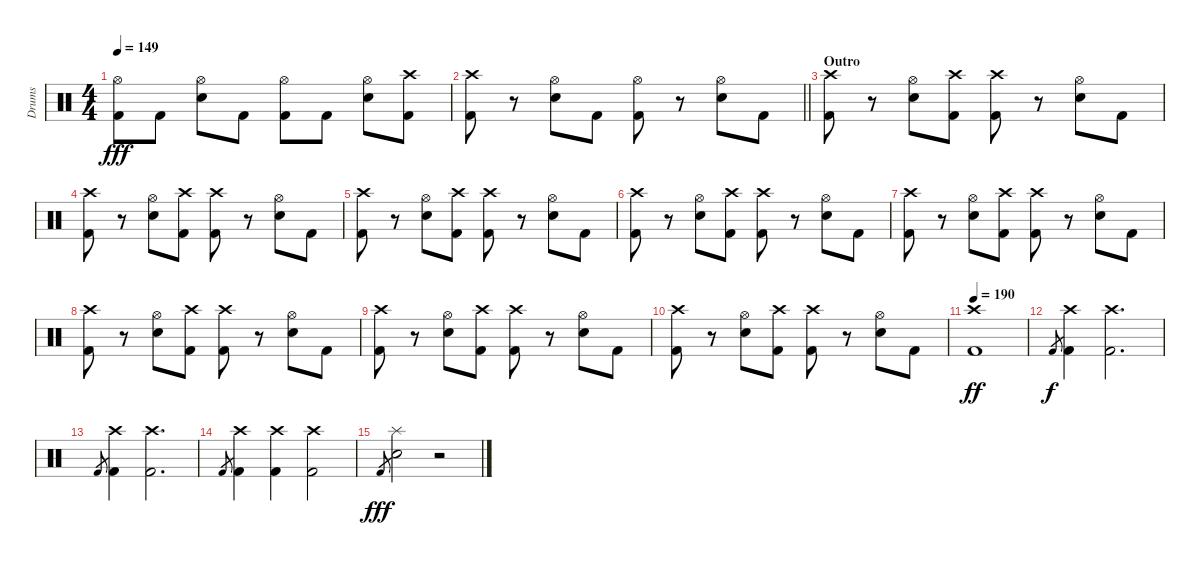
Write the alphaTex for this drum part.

\track ("Drums" "Drums") {instrument percussion}
\staff {score}
\articulation defaults
\ts (4 4)
\tempo 149
\clef neutral
\ks c
("Hi-Hat (open)" "Kick (hit) 2").8{dy fff} "Kick (hit) 2".8 ("Hi-Hat (open)" "Snare (hit) 2").8 "Kick (hit) 2".8 ("Hi-Hat (open)" "Kick (hit) 2").8 "Kick (hit) 2".8 ("Hi-Hat (open)" "Snare (hit) 2").8 ("Crash high (hit)" "Kick (hit) 2").8 |
\barLineRight lightlight
("Crash high (hit)" "Kick (hit) 2").8 r.8 ("Hi-Hat (open)" "Snare (hit) 2").8 "Kick (hit) 2".8 ("Hi-Hat (open)" "Kick (hit) 2").8 r.8 ("Hi-Hat (open)" "Snare (hit) 2").8 "Kick (hit) 2".8 |
\section ("" "Outro")
("Crash high (hit)" "Kick (hit) 2").8 r.8 ("Hi-Hat (open)" "Snare (hit) 2").8 ("Crash high (hit)" "Kick (hit) 2").8 ("Crash high (hit)" "Kick (hit) 2").8 r.8 ("Hi-Hat (open)" "Snare (hit) 2").8 "Kick (hit) 2".8 |
("Crash high (hit)" "Kick (hit) 2").8 r.8 ("Hi-Hat (open)" "Snare (hit) 2").8 ("Crash high (hit)" "Kick (hit) 2").8 ("Crash high (hit)" "Kick (hit) 2").8 r.8 ("Hi-Hat (open)" "Snare (hit) 2").8 "Kick (hit) 2".8 |
("Crash high (hit)" "Kick (hit) 2").8 r.8 ("Hi-Hat (open)" "Snare (hit) 2").8 ("Crash high (hit)" "Kick (hit) 2").8 ("Crash high (hit)" "Kick (hit) 2").8 r.8 ("Hi-Hat (open)" "Snare (hit) 2").8 "Kick (hit) 2".8 |
("Crash high (hit)" "Kick (hit) 2").8 r.8 ("Hi-Hat (open)" "Snare (hit) 2").8 ("Crash high (hit)" "Kick (hit) 2").8 ("Crash high (hit)" "Kick (hit) 2").8 r.8 ("Hi-Hat (open)" "Snare (hit) 2").8 "Kick (hit) 2".8 |
("Crash high (hit)" "Kick (hit) 2").8 r.8 ("Hi-Hat (open)" "Snare (hit) 2").8 ("Crash high (hit)" "Kick (hit) 2").8 ("Crash high (hit)" "Kick (hit) 2").8 r.8 ("Hi-Hat (open)" "Snare (hit) 2").8 "Kick (hit) 2".8 |
("Crash high (hit)" "Kick (hit) 2").8 r.8 ("Hi-Hat (open)" "Snare (hit) 2").8 ("Crash high (hit)" "Kick (hit) 2").8 ("Crash high (hit)" "Kick (hit) 2").8 r.8 ("Hi-Hat (open)" "Snare (hit) 2").8 "Kick (hit) 2".8 |
("Crash high (hit)" "Kick (hit) 2").8 r.8 ("Hi-Hat (open)" "Snare (hit) 2").8 ("Crash high (hit)" "Kick (hit) 2").8 ("Crash high (hit)" "Kick (hit) 2").8 r.8 ("Hi-Hat (open)" "Snare (hit) 2").8 "Kick (hit) 2".8 |
("Crash high (hit)" "Kick (hit) 2").8 r.8 ("Hi-Hat (open)" "Snare (hit) 2").8 ("Crash high (hit)" "Kick (hit) 2").8 ("Crash high (hit)" "Kick (hit) 2").8 r.8 ("Hi-Hat (open)" "Snare (hit) 2").8 "Kick (hit) 2".8 |
\tempo 190
("Crash high (hit)" "Kick (hit) 2").1{dy ff} |
"Kick (hit) 2".8{gr dy f} ("Crash high (hit)" "Kick (hit) 2").4 ("Crash high (hit)" "Kick (hit) 2").2{d} |
"Kick (hit) 2".8{gr} ("Crash high (hit)" "Kick (hit) 2").4 ("Crash high (hit)" "Kick (hit) 2").2{d} |
"Kick (hit) 2".8{gr} ("Crash high (hit)" "Kick (hit) 2").4 ("Crash high (hit)" "Kick (hit) 2").4 ("Crash high (hit)" "Kick (hit) 2").2 |
"Kick (hit) 2".8{gr dy fff} ("Splash (hit)" "Snare (hit) 2").2 r.2
